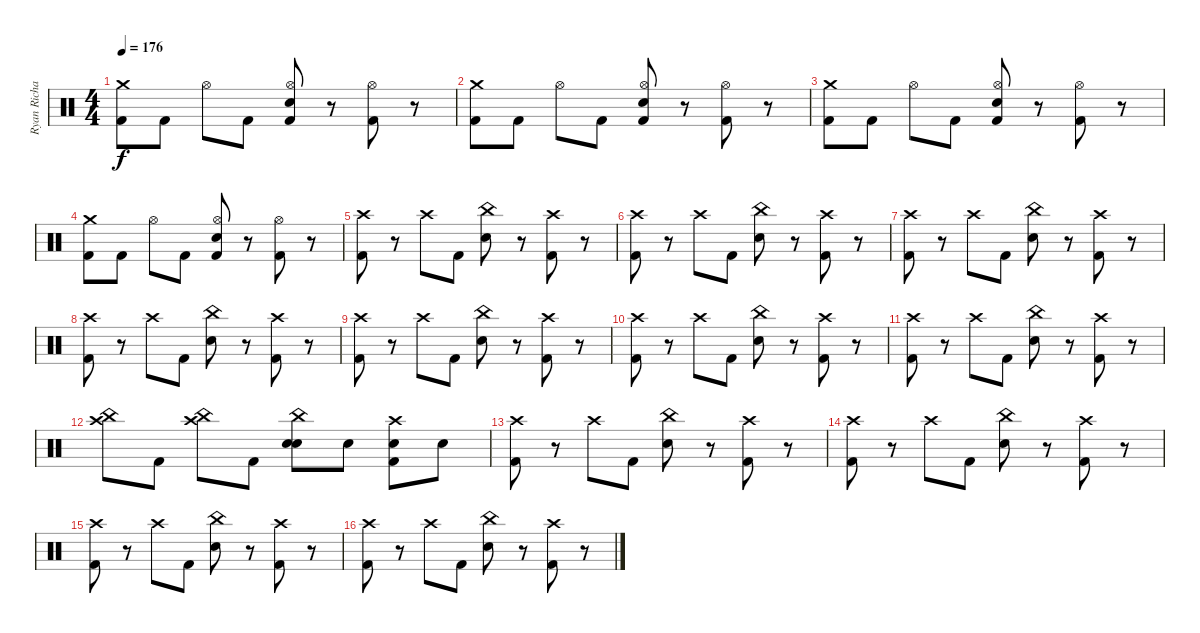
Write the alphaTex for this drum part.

\track ("Ryan Richards (drums)" "Ryan Richa") {instrument percussion}
\staff {score}
\articulation defaults
\ts (4 4)
\tempo 176
\clef neutral
\ks c
("Crash medium (hit)" "Kick (hit) 2").8{dy f} "Kick (hit) 2".8 "Hi-Hat (open)".8 "Kick (hit) 2".8 ("Snare (hit) 2" "Hi-Hat (open)" "Kick (hit) 2").8 r.8 ("Hi-Hat (open)" "Kick (hit) 2").8 r.8 |
("Crash medium (hit)" "Kick (hit) 2").8 "Kick (hit) 2".8 "Hi-Hat (open)".8 "Kick (hit) 2".8 ("Snare (hit) 2" "Hi-Hat (open)" "Kick (hit) 2").8 r.8 ("Hi-Hat (open)" "Kick (hit) 2").8 r.8 |
("Crash medium (hit)" "Kick (hit) 2").8 "Kick (hit) 2".8 "Hi-Hat (open)".8 "Kick (hit) 2".8 ("Snare (hit) 2" "Hi-Hat (open)" "Kick (hit) 2").8 r.8 ("Hi-Hat (open)" "Kick (hit) 2").8 r.8 |
("Crash medium (hit)" "Kick (hit) 2").8 "Kick (hit) 2".8 "Hi-Hat (open)".8 "Kick (hit) 2".8 ("Snare (hit) 2" "Hi-Hat (open)" "Kick (hit) 2").8 r.8 ("Hi-Hat (open)" "Kick (hit) 2").8 r.8 |
("Crash high (hit)" "Kick (hit) 2").8 r.8 "Crash high (hit)".8 "Kick (hit) 2".8 ("Snare (hit) 2" "China (hit)").8 r.8 ("Crash high (hit)" "Kick (hit) 2").8 r.8 |
("Crash high (hit)" "Kick (hit) 2").8 r.8 "Crash high (hit)".8 "Kick (hit) 2".8 ("Snare (hit) 2" "China (hit)").8 r.8 ("Crash high (hit)" "Kick (hit) 2").8 r.8 |
("Crash high (hit)" "Kick (hit) 2").8 r.8 "Crash high (hit)".8 "Kick (hit) 2".8 ("Snare (hit) 2" "China (hit)").8 r.8 ("Crash high (hit)" "Kick (hit) 2").8 r.8 |
("Crash high (hit)" "Kick (hit) 2").8 r.8 "Crash high (hit)".8 "Kick (hit) 2".8 ("Snare (hit) 2" "China (hit)").8 r.8 ("Crash high (hit)" "Kick (hit) 2").8 r.8 |
("Crash high (hit)" "Kick (hit) 2").8 r.8 "Crash high (hit)".8 "Kick (hit) 2".8 ("Snare (hit) 2" "China (hit)").8 r.8 ("Crash high (hit)" "Kick (hit) 2").8 r.8 |
("Crash high (hit)" "Kick (hit) 2").8 r.8 "Crash high (hit)".8 "Kick (hit) 2".8 ("Snare (hit) 2" "China (hit)").8 r.8 ("Crash high (hit)" "Kick (hit) 2").8 r.8 |
("Crash high (hit)" "Kick (hit) 2").8 r.8 "Crash high (hit)".8 "Kick (hit) 2".8 ("Snare (hit) 2" "China (hit)").8 r.8 ("Crash high (hit)" "Kick (hit) 2").8 r.8 |
("China (hit)" "Crash high (hit)").8 "Kick (hit) 2".8 ("China (hit)" "Crash high (hit)").8 "Kick (hit) 2".8 ("Snare (hit) 2" "China (hit)" "Snare (hit) 2").8 "Snare (hit) 2".8 ("Crash high (hit)" "Snare (hit) 2" "Kick (hit) 2").8 "Snare (hit) 2".8 |
("Crash high (hit)" "Kick (hit) 2").8 r.8 "Crash high (hit)".8 "Kick (hit) 2".8 ("Snare (hit) 2" "China (hit)").8 r.8 ("Crash high (hit)" "Kick (hit) 2").8 r.8 |
("Crash high (hit)" "Kick (hit) 2").8 r.8 "Crash high (hit)".8 "Kick (hit) 2".8 ("Snare (hit) 2" "China (hit)").8 r.8 ("Crash high (hit)" "Kick (hit) 2").8 r.8 |
("Crash high (hit)" "Kick (hit) 2").8 r.8 "Crash high (hit)".8 "Kick (hit) 2".8 ("Snare (hit) 2" "China (hit)").8 r.8 ("Crash high (hit)" "Kick (hit) 2").8 r.8 |
("Crash high (hit)" "Kick (hit) 2").8 r.8 "Crash high (hit)".8 "Kick (hit) 2".8 ("Snare (hit) 2" "China (hit)").8 r.8 ("Crash high (hit)" "Kick (hit) 2").8 r.8
